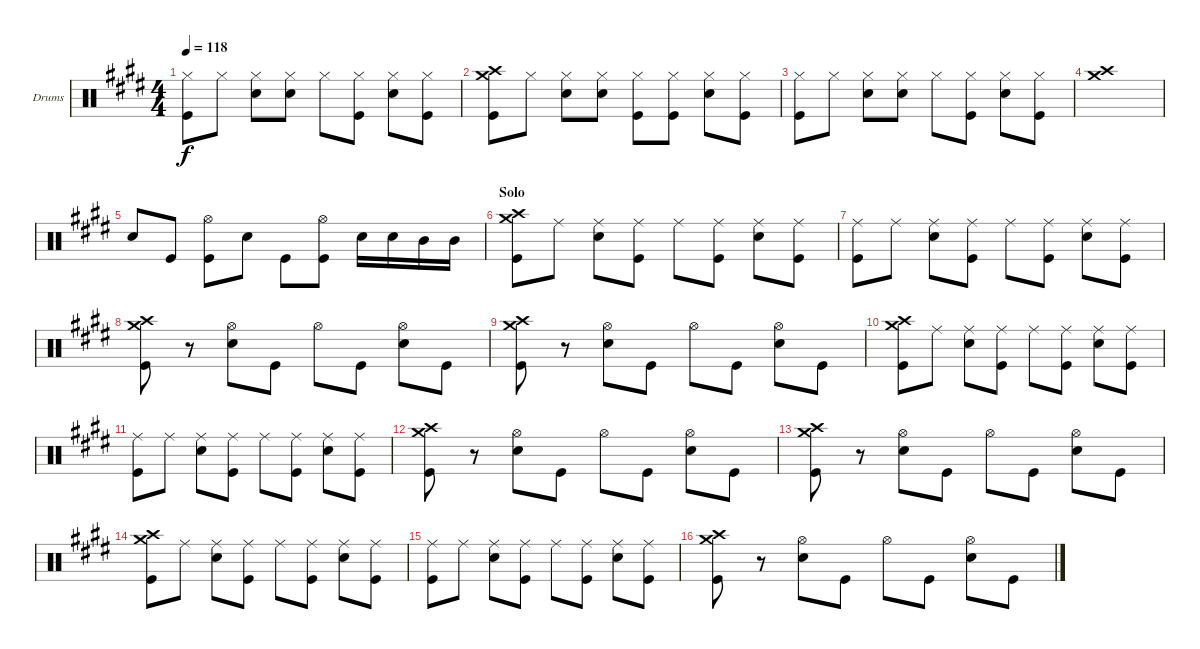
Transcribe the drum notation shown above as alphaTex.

\defaultSystemsLayout 4
\bracketExtendMode groupsimilarinstruments
\firstSystemTrackNameOrientation horizontal
\otherSystemsTrackNameOrientation horizontal
\track ("Drumkit" "Drums") {instrument percussion}
\staff {score}
\articulation defaults
\ts (4 4)
\tempo 118
\clef neutral
\ks e
("Hi-Hat (closed)" "Kick (hit)").8{dy f} "Hi-Hat (closed)".8 ("Hi-Hat (closed)" "Snare (hit) 2").8 ("Hi-Hat (closed)" "Snare (hit) 2").8 "Hi-Hat (closed)".8 ("Hi-Hat (closed)" "Kick (hit)").8 ("Hi-Hat (closed)" "Snare (hit) 2").8 ("Hi-Hat (closed)" "Kick (hit)").8 |
("Crash medium (hit)" "Crash high (hit)" "Kick (hit)").8 "Hi-Hat (closed)".8 ("Hi-Hat (closed)" "Snare (hit) 2").8 ("Hi-Hat (closed)" "Snare (hit) 2").8 ("Hi-Hat (closed)" "Kick (hit)").8 ("Hi-Hat (closed)" "Kick (hit)").8 ("Hi-Hat (closed)" "Snare (hit) 2").8 ("Hi-Hat (closed)" "Kick (hit)").8 |
("Hi-Hat (closed)" "Kick (hit)").8 "Hi-Hat (closed)".8 ("Hi-Hat (closed)" "Snare (hit) 2").8 ("Hi-Hat (closed)" "Snare (hit) 2").8 "Hi-Hat (closed)".8 ("Hi-Hat (closed)" "Kick (hit)").8 ("Hi-Hat (closed)" "Snare (hit) 2").8 ("Hi-Hat (closed)" "Kick (hit)").8 |
("Crash medium (hit)" "Crash high (hit)").1 |
"Snare (hit) 2".8 "Kick (hit)".8 ("Hi-Hat (open)" "Kick (hit)").8 "Snare (hit) 2".8 "Kick (hit)".8 ("Hi-Hat (open)" "Kick (hit)").8 "Snare (hit) 2".16 "Snare (hit) 2".16 "Mid Tom (hit)".16 "Mid Tom (hit)".16 |
\section ("" "Solo")
("Crash medium (hit)" "Crash high (hit)" "Kick (hit)").8 "Ride (middle)".8 ("Ride (middle)" "Snare (hit) 2").8 ("Ride (middle)" "Kick (hit)").8 "Ride (middle)".8 ("Ride (middle)" "Kick (hit)").8 ("Ride (middle)" "Snare (hit) 2").8 ("Ride (middle)" "Kick (hit)").8 |
("Ride (middle)" "Kick (hit)").8 "Ride (middle)".8 ("Ride (middle)" "Snare (hit) 2").8 ("Ride (middle)" "Kick (hit)").8 "Ride (middle)".8 ("Ride (middle)" "Kick (hit)").8 ("Ride (middle)" "Snare (hit) 2").8 ("Ride (middle)" "Kick (hit)").8 |
("Crash medium (hit)" "Crash high (hit)" "Kick (hit)").8 r.8 ("Hi-Hat (open)" "Snare (hit) 2").8 "Kick (hit)".8 "Hi-Hat (open)".8 "Kick (hit)".8 ("Hi-Hat (open)" "Snare (hit) 2").8 "Kick (hit)".8 |
("Crash medium (hit)" "Crash high (hit)" "Kick (hit)").8 r.8 ("Hi-Hat (open)" "Snare (hit) 2").8 "Kick (hit)".8 "Hi-Hat (open)".8 "Kick (hit)".8 ("Hi-Hat (open)" "Snare (hit) 2").8 "Kick (hit)".8 |
("Crash medium (hit)" "Crash high (hit)" "Kick (hit)").8 "Ride (middle)".8 ("Ride (middle)" "Snare (hit) 2").8 ("Ride (middle)" "Kick (hit)").8 "Ride (middle)".8 ("Ride (middle)" "Kick (hit)").8 ("Ride (middle)" "Snare (hit) 2").8 ("Ride (middle)" "Kick (hit)").8 |
("Ride (middle)" "Kick (hit)").8 "Ride (middle)".8 ("Ride (middle)" "Snare (hit) 2").8 ("Ride (middle)" "Kick (hit)").8 "Ride (middle)".8 ("Ride (middle)" "Kick (hit)").8 ("Ride (middle)" "Snare (hit) 2").8 ("Ride (middle)" "Kick (hit)").8 |
\scale
0.302752 ("Crash medium (hit)" "Crash high (hit)" "Kick (hit)").8 r.8 ("Hi-Hat (open)" "Snare (hit) 2").8 "Kick (hit)".8 "Hi-Hat (open)".8 "Kick (hit)".8 ("Hi-Hat (open)" "Snare (hit) 2").8 "Kick (hit)".8 |
\scale
0.33945 ("Crash medium (hit)" "Crash high (hit)" "Kick (hit)").8 r.8 ("Hi-Hat (open)" "Snare (hit) 2").8 "Kick (hit)".8 "Hi-Hat (open)".8 "Kick (hit)".8 ("Hi-Hat (open)" "Snare (hit) 2").8 "Kick (hit)".8 |
\scale
0.357798 ("Crash medium (hit)" "Crash high (hit)" "Kick (hit)").8 "Ride (middle)".8 ("Ride (middle)" "Snare (hit) 2").8 ("Ride (middle)" "Kick (hit)").8 "Ride (middle)".8 ("Ride (middle)" "Kick (hit)").8 ("Ride (middle)" "Snare (hit) 2").8 ("Ride (middle)" "Kick (hit)").8 |
\scale
0.392857 ("Ride (middle)" "Kick (hit)").8 "Ride (middle)".8 ("Ride (middle)" "Snare (hit) 2").8 ("Ride (middle)" "Kick (hit)").8 "Ride (middle)".8 ("Ride (middle)" "Kick (hit)").8 ("Ride (middle)" "Snare (hit) 2").8 ("Ride (middle)" "Kick (hit)").8 |
\scale
0.333333 ("Crash medium (hit)" "Crash high (hit)" "Kick (hit)").8 r.8 ("Hi-Hat (open)" "Snare (hit) 2").8 "Kick (hit)".8 "Hi-Hat (open)".8 "Kick (hit)".8 ("Hi-Hat (open)" "Snare (hit) 2").8 "Kick (hit)".8
